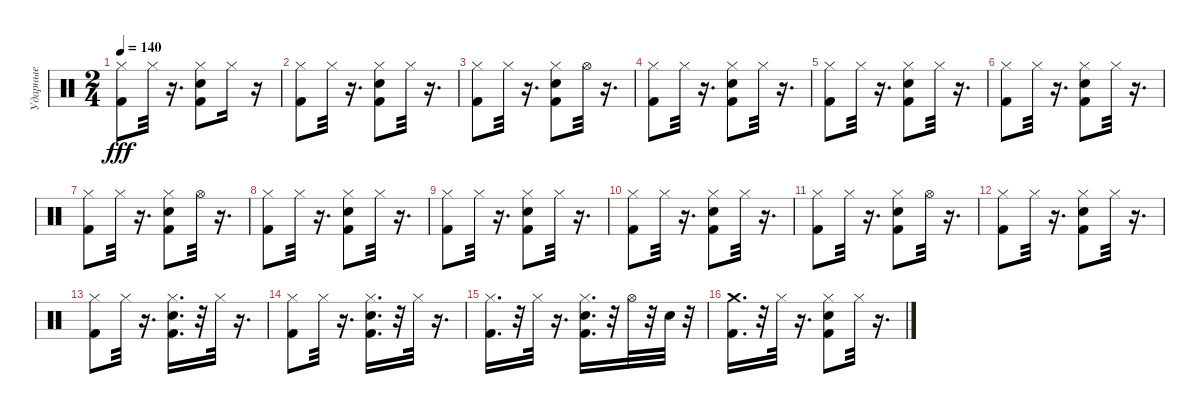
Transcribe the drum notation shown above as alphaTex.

\track ("Ударные" "Ударные") {instrument percussion}
\staff {score}
\articulation defaults
\ts (2 4)
\tempo 140
\clef neutral
\ks c
("Kick (hit) 2" "Hi-Hat (closed)").8{dy fff} "Hi-Hat (closed)".32 r.16{d} ("Hi-Hat (closed)" "Snare (hit) 2" "Kick (hit) 2").8 "Hi-Hat (closed)".16 r.16 |
("Kick (hit) 2" "Hi-Hat (closed)").8 "Hi-Hat (closed)".32 r.16{d} ("Snare (hit) 2" "Kick (hit) 2" "Hi-Hat (closed)").8 "Hi-Hat (closed)".32 r.16{d} |
("Kick (hit) 2" "Hi-Hat (closed)").8 "Hi-Hat (closed)".32 r.16{d} ("Kick (hit) 2" "Snare (hit) 2" "Hi-Hat (closed)").8 "Hi-Hat (open)".32 r.16{d} |
("Kick (hit) 2" "Hi-Hat (closed)").8 "Hi-Hat (closed)".32 r.16{d} ("Snare (hit) 2" "Kick (hit) 2" "Hi-Hat (closed)").8 "Hi-Hat (closed)".32 r.16{d} |
("Kick (hit) 2" "Hi-Hat (closed)").8 "Hi-Hat (closed)".32 r.16{d} ("Snare (hit) 2" "Kick (hit) 2" "Hi-Hat (closed)").8 "Hi-Hat (closed)".32 r.16{d} |
("Kick (hit) 2" "Hi-Hat (closed)").8 "Hi-Hat (closed)".32 r.16{d} ("Snare (hit) 2" "Kick (hit) 2" "Hi-Hat (closed)").8 "Hi-Hat (closed)".32 r.16{d} |
("Kick (hit) 2" "Hi-Hat (closed)").8 "Hi-Hat (closed)".32 r.16{d} ("Snare (hit) 2" "Kick (hit) 2" "Hi-Hat (closed)").8 "Hi-Hat (open)".32 r.16{d} |
("Kick (hit) 2" "Hi-Hat (closed)").8 "Hi-Hat (closed)".32 r.16{d} ("Snare (hit) 2" "Kick (hit) 2" "Hi-Hat (closed)").8 "Hi-Hat (closed)".32 r.16{d} |
("Kick (hit) 2" "Hi-Hat (closed)").8 "Hi-Hat (closed)".32 r.16{d} ("Snare (hit) 2" "Kick (hit) 2" "Hi-Hat (closed)").8 "Hi-Hat (closed)".32 r.16{d} |
("Kick (hit) 2" "Hi-Hat (closed)").8 "Hi-Hat (closed)".32 r.16{d} ("Kick (hit) 2" "Hi-Hat (closed)" "Snare (hit) 2").8 "Hi-Hat (closed)".32 r.16{d} |
("Kick (hit) 2" "Hi-Hat (closed)").8 "Hi-Hat (closed)".32 r.16{d} ("Snare (hit) 2" "Kick (hit) 2" "Hi-Hat (closed)").8 "Hi-Hat (open)".32 r.16{d} |
("Kick (hit) 2" "Hi-Hat (closed)").8 "Hi-Hat (closed)".32 r.16{d} ("Snare (hit) 2" "Kick (hit) 2" "Hi-Hat (closed)").8 "Hi-Hat (closed)".32 r.16{d} |
("Kick (hit) 2" "Hi-Hat (closed)").8 "Hi-Hat (closed)".32 r.16{d} ("Snare (hit) 2" "Kick (hit) 2" "Hi-Hat (closed)").16{d} r.32 "Hi-Hat (closed)".32 r.16{d} |
("Kick (hit) 2" "Hi-Hat (closed)").8 "Hi-Hat (closed)".32 r.16{d} ("Snare (hit) 2" "Kick (hit) 2" "Hi-Hat (closed)").16{d} r.32 "Hi-Hat (closed)".32 r.16{d} |
("Kick (hit) 2" "Hi-Hat (closed)").16{d} r.32 "Hi-Hat (closed)".32 r.16{d} ("Snare (hit) 2" "Kick (hit) 2" "Hi-Hat (closed)").16{d} r.32 "Hi-Hat (open)".32 r.32 "Snare (hit) 2".32 r.32 |
("Kick (hit) 2" "Crash medium (hit)").16{d} r.32 "Hi-Hat (closed)".32 r.16{d} ("Hi-Hat (closed)" "Kick (hit) 2" "Snare (hit) 2").8 "Hi-Hat (closed)".32 r.16{d}
